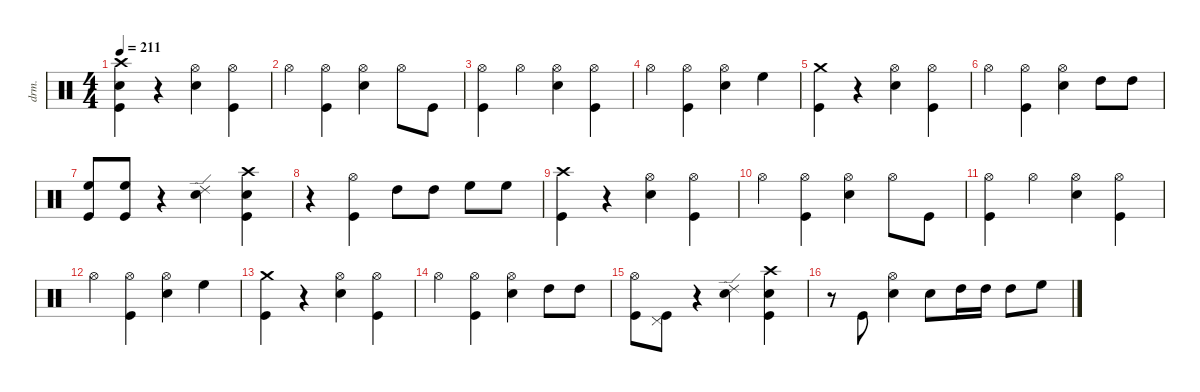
\defaultSystemsLayout 4
\hideDynamics
\bracketExtendMode nobrackets
\track ("Drums" "drm.") {instrument percussion}
\staff {score}
\articulation defaults
\ts (4 4)
\tempo 211
\clef neutral
\ks c
("Kick (hit)" "Snare (hit) 2" "Crash high (hit)"{acc #}).4{dy fff beam Down} r.4{beam Down} ("Snare (hit) 2" "Hi-Hat (open)"{acc #}).4{dy ff beam Down} ("Kick (hit)" "Hi-Hat (open)"{acc #}).4{beam Down} |
"Hi-Hat (open)"{acc #}.4{dy fff beam Down} ("Kick (hit)" "Hi-Hat (open)"{acc #}).4{dy ff beam Down} ("Snare (hit) 2" "Hi-Hat (open)"{acc #}).4{beam Down} "Hi-Hat (open)"{acc #}.8{dy mf beam Down} "Kick (hit)".8{beam Down} |
("Kick (hit)" "Hi-Hat (open)"{acc #}).4{dy fff beam Down} "Hi-Hat (open)"{acc #}.4{dy mf beam Down} ("Snare (hit) 2" "Hi-Hat (open)"{acc #}).4{dy ff beam Down} ("Kick (hit)" "Hi-Hat (open)"{acc #}).4{beam Down} |
"Hi-Hat (open)"{acc #}.4{dy fff beam Down} ("Kick (hit)" "Hi-Hat (open)"{acc #}).4{dy ff beam Down} ("Snare (hit) 2" "Hi-Hat (open)"{acc #}).4{beam Down} "High Floor Tom (hit)".4{beam Down} |
("Kick (hit)" "Crash medium (hit)").4{dy fff beam Down} r.4{beam Down} ("Snare (hit) 2" "Hi-Hat (open)"{acc #}).4{dy ff beam Down} ("Kick (hit)" "Hi-Hat (open)"{acc #}).4{beam Down} |
"Hi-Hat (open)"{acc #}.4{dy fff beam Down} ("Kick (hit)" "Hi-Hat (open)"{acc #}).4{dy ff beam Down} ("Snare (hit) 2" "Hi-Hat (open)"{acc #}).4{beam Down} "High Tom (hit)".8{beam Down} "High Tom (hit)".8{dy mf beam Down} |
("Kick (hit)" "High Floor Tom (hit)").8{dy ff beam Up} ("Kick (hit)" "High Floor Tom (hit)").8{dy fff beam Up} r.4{beam Down} ("Snare (hit) 2" "Ride (edge) 2").4{dy f beam Down} ("Kick (hit)" "Snare (hit) 2" "Crash high (hit)"{acc #}).4{dy ff beam Down} |
r.4{beam Down} ("Kick (hit)" "Hi-Hat (open)"{acc #}).4{dy fff beam Down} "High Tom (hit)".8{dy ff beam Down} "High Tom (hit)".8{dy mf beam Down} "High Floor Tom (hit)".8{dy f beam Down} "High Floor Tom (hit)".8{dy mf beam Down} |
("Kick (hit)" "Crash high (hit)"{acc #}).4{dy fff beam Down} r.4{beam Down} ("Snare (hit) 2" "Hi-Hat (open)"{acc #}).4{dy ff beam Down} ("Kick (hit)" "Hi-Hat (open)"{acc #}).4{beam Down} |
"Hi-Hat (open)"{acc #}.4{dy fff beam Down} ("Kick (hit)" "Hi-Hat (open)"{acc #}).4{dy ff beam Down} ("Snare (hit) 2" "Hi-Hat (open)"{acc #}).4{beam Down} "Hi-Hat (open)"{acc #}.8{dy mf beam Down} "Kick (hit)".8{beam Down} |
("Kick (hit)" "Hi-Hat (open)"{acc #}).4{dy fff beam Down} "Hi-Hat (open)"{acc #}.4{dy mf beam Down} ("Snare (hit) 2" "Hi-Hat (open)"{acc #}).4{dy ff beam Down} ("Kick (hit)" "Hi-Hat (open)"{acc #}).4{beam Down} |
"Hi-Hat (open)"{acc #}.4{dy fff beam Down} ("Kick (hit)" "Hi-Hat (open)"{acc #}).4{dy ff beam Down} ("Snare (hit) 2" "Hi-Hat (open)"{acc #}).4{beam Down} "High Floor Tom (hit)".4{beam Down} |
("Kick (hit)" "Crash medium (hit)").4{dy fff beam Down} r.4{beam Down} ("Snare (hit) 2" "Hi-Hat (open)"{acc #}).4{dy ff beam Down} ("Kick (hit)" "Hi-Hat (open)"{acc #}).4{beam Down} |
"Hi-Hat (open)"{acc #}.4{dy fff beam Down} ("Kick (hit)" "Hi-Hat (open)"{acc #}).4{dy ff beam Down} ("Snare (hit) 2" "Hi-Hat (open)"{acc #}).4{beam Down} "High Tom (hit)".8{beam Down} "High Tom (hit)".8{dy mf beam Down} |
("Kick (hit)" "Hi-Hat (open)"{acc #}).8{dy ff beam Down} ("Kick (hit)" "Pedal Hi-Hat (hit)"{acc #}).8{dy fff beam Down} r.4{beam Down} ("Snare (hit) 2" "Ride (edge) 2").4{dy f beam Down} ("Kick (hit)" "Snare (hit) 2" "Crash high (hit)"{acc #}).4{dy ff beam Down} |
r.8{beam Down} "Kick (hit)".8{dy mf beam Up} ("Snare (hit) 2" "Hi-Hat (open)"{acc #}).4{dy fff beam Down} "Snare (hit) 2".8{beam Down} "High Tom (hit)".16{dy ff beam Down} "High Tom (hit)".16{dy pp beam Down} "High Tom (hit)".8{dy f beam Down} "High Floor Tom (hit)".8{dy mp beam Down}
